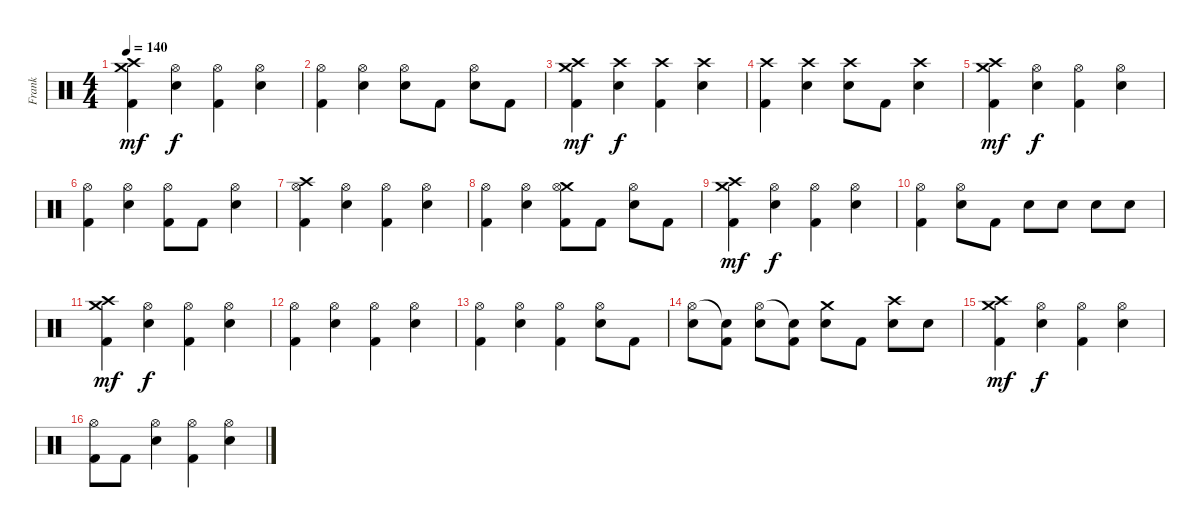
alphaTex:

\track ("Frank" "Frank") {instrument percussion}
\staff {score}
\articulation defaults
\ts (4 4)
\tempo 140
\clef neutral
\ks c
("Crash medium (hit)" "Crash high (hit)" "Kick (hit) 2").4{dy mf} ("Hi-Hat (open)" "Snare (hit) 2").4{dy f} ("Hi-Hat (open)" "Kick (hit) 2").4 ("Hi-Hat (open)" "Snare (hit) 2").4 |
("Hi-Hat (open)" "Kick (hit) 2").4 ("Hi-Hat (open)" "Snare (hit) 2").4 ("Hi-Hat (open)" "Snare (hit) 2").8 "Kick (hit) 2".8 ("Hi-Hat (open)" "Snare (hit) 2").8 "Kick (hit) 2".8 |
("Crash medium (hit)" "Crash high (hit)" "Kick (hit) 2").4{dy mf} ("Crash high (hit)" "Snare (hit) 2").4{dy f} ("Crash high (hit)" "Kick (hit) 2").4 ("Crash high (hit)" "Snare (hit) 2").4 |
("Crash high (hit)" "Kick (hit) 2").4 ("Crash high (hit)" "Snare (hit) 2").4 ("Crash high (hit)" "Snare (hit) 2").8 "Kick (hit) 2".8 ("Crash high (hit)" "Snare (hit) 2").4 |
("Crash medium (hit)" "Crash high (hit)" "Kick (hit) 2").4{dy mf} ("Hi-Hat (open)" "Snare (hit) 2").4{dy f} ("Hi-Hat (open)" "Kick (hit) 2").4 ("Hi-Hat (open)" "Snare (hit) 2").4 |
("Hi-Hat (open)" "Kick (hit) 2").4 ("Hi-Hat (open)" "Snare (hit) 2").4 ("Hi-Hat (open)" "Kick (hit) 2").8 "Kick (hit) 2".8 ("Hi-Hat (open)" "Snare (hit) 2").4 |
("Crash high (hit)" "Hi-Hat (open)" "Kick (hit) 2").4 ("Hi-Hat (open)" "Snare (hit) 2").4 ("Hi-Hat (open)" "Kick (hit) 2").4 ("Hi-Hat (open)" "Snare (hit) 2").4 |
("Hi-Hat (open)" "Kick (hit) 2").4 ("Hi-Hat (open)" "Snare (hit) 2").4 ("Crash medium (hit)" "Hi-Hat (open)" "Kick (hit) 2").8 "Kick (hit) 2".8 ("Hi-Hat (open)" "Snare (hit) 2").8 "Kick (hit) 2".8 |
("Crash medium (hit)" "Crash high (hit)" "Kick (hit) 2").4{dy mf} ("Hi-Hat (open)" "Snare (hit) 2").4{dy f} ("Hi-Hat (open)" "Kick (hit) 2").4 ("Hi-Hat (open)" "Snare (hit) 2").4 |
("Hi-Hat (open)" "Kick (hit) 2").4 ("Hi-Hat (open)" "Snare (hit) 2").8 "Kick (hit) 2".8 "Snare (hit) 2".8 "Snare (hit) 2".8 "Snare (hit) 2".8 "Snare (hit) 2".8 |
("Crash medium (hit)" "Crash high (hit)" "Kick (hit) 2").4{dy mf} ("Hi-Hat (open)" "Snare (hit) 2").4{dy f} ("Hi-Hat (open)" "Kick (hit) 2").4 ("Hi-Hat (open)" "Snare (hit) 2").4 |
("Hi-Hat (open)" "Kick (hit) 2").4 ("Hi-Hat (open)" "Snare (hit) 2").4 ("Hi-Hat (open)" "Kick (hit) 2").4 ("Hi-Hat (open)" "Snare (hit) 2").4 |
("Hi-Hat (open)" "Kick (hit) 2").4 ("Hi-Hat (open)" "Snare (hit) 2").4 ("Hi-Hat (open)" "Kick (hit) 2").4 ("Hi-Hat (open)" "Snare (hit) 2").8 "Kick (hit) 2".8 |
("Hi-Hat (open)" "Snare (hit) 2").8 ("Snare (hit)"{t} "Kick (hit) 2").8 ("Hi-Hat (open)" "Snare (hit) 2").8 ("Snare (hit)"{t} "Kick (hit) 2").8 ("Crash medium (hit)" "Snare (hit) 2").8 "Kick (hit) 2".8 ("Crash high (hit)" "Snare (hit) 2").8 "Snare (hit) 2".8 |
("Crash medium (hit)" "Crash high (hit)" "Kick (hit) 2").4{dy mf} ("Hi-Hat (open)" "Snare (hit) 2").4{dy f} ("Hi-Hat (open)" "Kick (hit) 2").4 ("Hi-Hat (open)" "Snare (hit) 2").4 |
("Hi-Hat (open)" "Kick (hit) 2").8 "Kick (hit) 2".8 ("Hi-Hat (open)" "Snare (hit) 2").4 ("Hi-Hat (open)" "Kick (hit) 2").4 ("Hi-Hat (open)" "Snare (hit) 2").4
